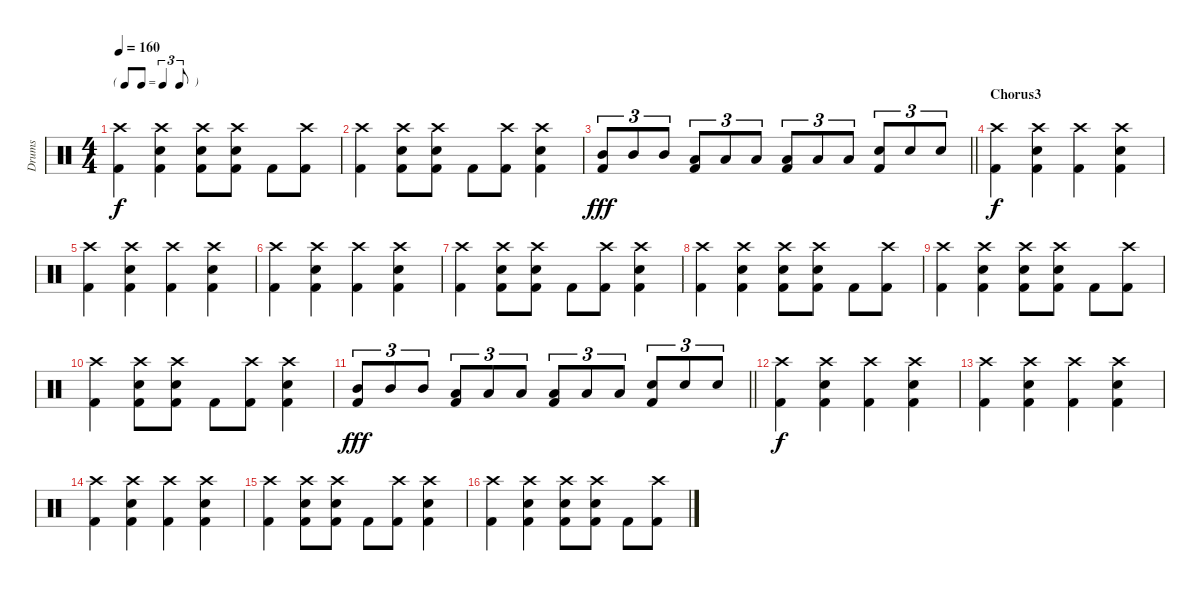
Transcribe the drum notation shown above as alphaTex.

\track ("Drums" "Drums") {instrument percussion}
\staff {score}
\articulation defaults
\ts (4 4)
\tf triplet8th
\tempo 160
\clef neutral
\ks c
("Crash high (hit)" "Kick (hit) 2").4{dy f} ("Crash high (hit)" "Snare (hit) 2" "Kick (hit) 2").4 ("Crash high (hit)" "Snare (hit) 2" "Kick (hit) 2").8 ("Crash high (hit)" "Snare (hit) 2" "Kick (hit) 2").8 "Kick (hit) 2".8 ("Crash high (hit)" "Kick (hit) 2").8 |
("Crash high (hit)" "Kick (hit) 2").4 ("Crash high (hit)" "Snare (hit) 2" "Kick (hit) 2").8 ("Crash high (hit)" "Snare (hit) 2" "Kick (hit) 2").8 "Kick (hit) 2".8 ("Crash high (hit)" "Kick (hit) 2").8 ("Crash high (hit)" "Snare (hit) 2" "Kick (hit) 2").4 |
\barLineRight lightlight
("Mid Tom (hit)" "Kick (hit) 2").8{tu (3 2) dy fff} "Mid Tom (hit)".8{tu (3 2)} "Mid Tom (hit)".8{tu (3 2)} ("Low Tom (hit)" "Kick (hit) 2").8{tu (3 2)} "Low Tom (hit)".8{tu (3 2)} "Low Tom (hit)".8{tu (3 2)} ("Low Floor Tom (hit)" "Kick (hit) 2").8{tu (3 2)} "Low Floor Tom (hit)".8{tu (3 2)} "Low Floor Tom (hit)".8{tu (3 2)} ("Snare (hit) 2" "Kick (hit) 2").8{tu (3 2)} "Snare (hit) 2".8{tu (3 2)} "Snare (hit) 2".8{tu (3 2)} |
\section ("" "Chorus3")
("Crash high (hit)" "Kick (hit) 2").4{dy f} ("Crash high (hit)" "Snare (hit) 2" "Kick (hit) 2").4 ("Crash high (hit)" "Kick (hit) 2").4 ("Crash high (hit)" "Snare (hit) 2" "Kick (hit) 2").4 |
("Crash high (hit)" "Kick (hit) 2").4 ("Crash high (hit)" "Snare (hit) 2" "Kick (hit) 2").4 ("Crash high (hit)" "Kick (hit) 2").4 ("Crash high (hit)" "Snare (hit) 2" "Kick (hit) 2").4 |
("Crash high (hit)" "Kick (hit) 2").4 ("Crash high (hit)" "Snare (hit) 2" "Kick (hit) 2").4 ("Crash high (hit)" "Kick (hit) 2").4 ("Crash high (hit)" "Snare (hit) 2" "Kick (hit) 2").4 |
("Crash high (hit)" "Kick (hit) 2").4 ("Crash high (hit)" "Snare (hit) 2" "Kick (hit) 2").8 ("Crash high (hit)" "Snare (hit) 2" "Kick (hit) 2").8 "Kick (hit) 2".8 ("Crash high (hit)" "Kick (hit) 2").8 ("Crash high (hit)" "Snare (hit) 2" "Kick (hit) 2").4 |
("Crash high (hit)" "Kick (hit) 2").4 ("Crash high (hit)" "Snare (hit) 2" "Kick (hit) 2").4 ("Crash high (hit)" "Snare (hit) 2" "Kick (hit) 2").8 ("Crash high (hit)" "Snare (hit) 2" "Kick (hit) 2").8 "Kick (hit) 2".8 ("Crash high (hit)" "Kick (hit) 2").8 |
("Crash high (hit)" "Kick (hit) 2").4 ("Crash high (hit)" "Snare (hit) 2" "Kick (hit) 2").4 ("Crash high (hit)" "Snare (hit) 2" "Kick (hit) 2").8 ("Crash high (hit)" "Snare (hit) 2" "Kick (hit) 2").8 "Kick (hit) 2".8 ("Crash high (hit)" "Kick (hit) 2").8 |
("Crash high (hit)" "Kick (hit) 2").4 ("Crash high (hit)" "Snare (hit) 2" "Kick (hit) 2").8 ("Crash high (hit)" "Snare (hit) 2" "Kick (hit) 2").8 "Kick (hit) 2".8 ("Crash high (hit)" "Kick (hit) 2").8 ("Crash high (hit)" "Snare (hit) 2" "Kick (hit) 2").4 |
\barLineRight lightlight
("Mid Tom (hit)" "Kick (hit) 2").8{tu (3 2) dy fff} "Mid Tom (hit)".8{tu (3 2)} "Mid Tom (hit)".8{tu (3 2)} ("Low Tom (hit)" "Kick (hit) 2").8{tu (3 2)} "Low Tom (hit)".8{tu (3 2)} "Low Tom (hit)".8{tu (3 2)} ("Low Floor Tom (hit)" "Kick (hit) 2").8{tu (3 2)} "Low Floor Tom (hit)".8{tu (3 2)} "Low Floor Tom (hit)".8{tu (3 2)} ("Snare (hit) 2" "Kick (hit) 2").8{tu (3 2)} "Snare (hit) 2".8{tu (3 2)} "Snare (hit) 2".8{tu (3 2)} |
("Crash high (hit)" "Kick (hit) 2").4{dy f} ("Crash high (hit)" "Snare (hit) 2" "Kick (hit) 2").4 ("Crash high (hit)" "Kick (hit) 2").4 ("Crash high (hit)" "Snare (hit) 2" "Kick (hit) 2").4 |
("Crash high (hit)" "Kick (hit) 2").4 ("Crash high (hit)" "Snare (hit) 2" "Kick (hit) 2").4 ("Crash high (hit)" "Kick (hit) 2").4 ("Crash high (hit)" "Snare (hit) 2" "Kick (hit) 2").4 |
("Crash high (hit)" "Kick (hit) 2").4 ("Crash high (hit)" "Snare (hit) 2" "Kick (hit) 2").4 ("Crash high (hit)" "Kick (hit) 2").4 ("Crash high (hit)" "Snare (hit) 2" "Kick (hit) 2").4 |
("Crash high (hit)" "Kick (hit) 2").4 ("Crash high (hit)" "Snare (hit) 2" "Kick (hit) 2").8 ("Crash high (hit)" "Snare (hit) 2" "Kick (hit) 2").8 "Kick (hit) 2".8 ("Crash high (hit)" "Kick (hit) 2").8 ("Crash high (hit)" "Snare (hit) 2" "Kick (hit) 2").4 |
("Crash high (hit)" "Kick (hit) 2").4 ("Crash high (hit)" "Snare (hit) 2" "Kick (hit) 2").4 ("Crash high (hit)" "Snare (hit) 2" "Kick (hit) 2").8 ("Crash high (hit)" "Snare (hit) 2" "Kick (hit) 2").8 "Kick (hit) 2".8 ("Crash high (hit)" "Kick (hit) 2").8
